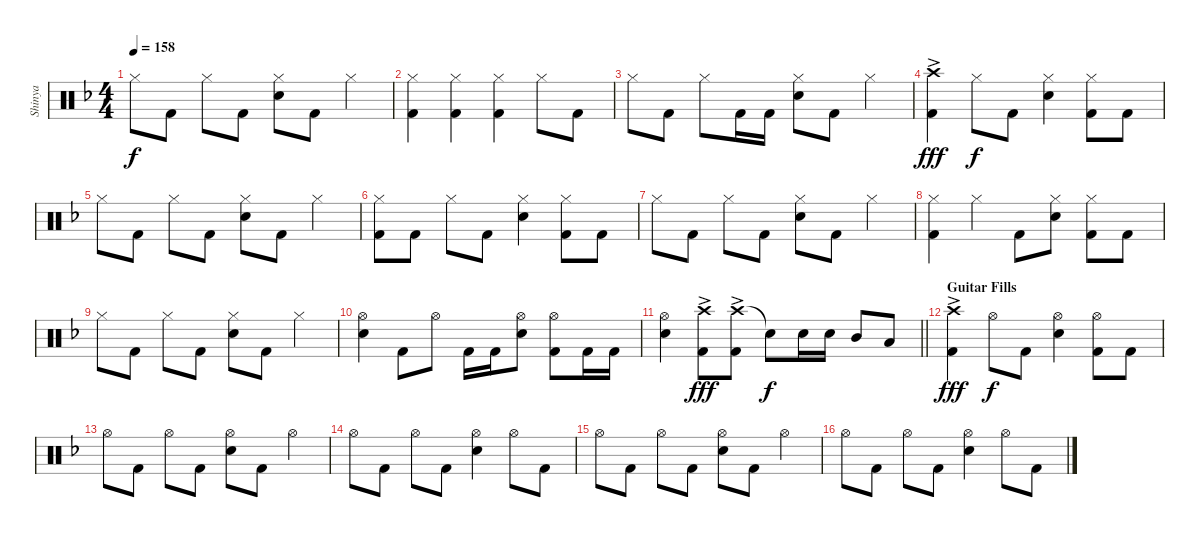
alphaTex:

\track ("Shinya" "Shinya") {instrument percussion}
\staff {score}
\articulation defaults
\ts (4 4)
\tempo 158
\clef neutral
\ks f "Hi-Hat (closed)".8{dy f} "Kick (hit) 2".8 "Hi-Hat (closed)".8 "Kick (hit) 2".8
("Hi-Hat (closed)" "Snare (hit) 2").8 "Kick (hit) 2".8 "Hi-Hat (closed)".4 |
("Hi-Hat (closed)" "Kick (hit) 2").4 ("Hi-Hat (closed)" "Kick (hit) 2").4 ("Hi-Hat (closed)" "Kick (hit) 2").4 "Hi-Hat (closed)".8 "Kick (hit) 2".8 |
"Hi-Hat (closed)".8 "Kick (hit) 2".8 "Hi-Hat (closed)".8 "Kick (hit) 2".16 "Kick (hit) 2".16 ("Hi-Hat (closed)" "Snare (hit) 2").8 "Kick (hit) 2".8 "Hi-Hat (closed)".4 |
("Crash high (hit)"{ac} "Kick (hit) 2").4{dy fff} "Hi-Hat (closed)".8{dy f} "Kick (hit) 2".8 ("Hi-Hat (closed)" "Snare (hit) 2").4 ("Hi-Hat (closed)" "Kick (hit) 2").8 "Kick (hit) 2".8 |
"Hi-Hat (closed)".8 "Kick (hit) 2".8 "Hi-Hat (closed)".8 "Kick (hit) 2".8 ("Hi-Hat (closed)" "Snare (hit) 2").8 "Kick (hit) 2".8 "Hi-Hat (closed)".4 |
("Hi-Hat (closed)" "Kick (hit) 2").8 "Kick (hit) 2".8 "Hi-Hat (closed)".8 "Kick (hit) 2".8 ("Hi-Hat (closed)" "Snare (hit) 2").4 ("Hi-Hat (closed)" "Kick (hit) 2").8 "Kick (hit) 2".8 |
"Hi-Hat (closed)".8 "Kick (hit) 2".8 "Hi-Hat (closed)".8 "Kick (hit) 2".8 ("Hi-Hat (closed)" "Snare (hit) 2").8 "Kick (hit) 2".8 "Hi-Hat (closed)".4 |
("Hi-Hat (closed)" "Kick (hit) 2").4 "Hi-Hat (closed)".4 "Kick (hit) 2".8 ("Hi-Hat (closed)" "Snare (hit) 2").8 ("Hi-Hat (closed)" "Kick (hit) 2").8 "Kick (hit) 2".8 |
"Hi-Hat (closed)".8 "Kick (hit) 2".8 "Hi-Hat (closed)".8 "Kick (hit) 2".8 ("Hi-Hat (closed)" "Snare (hit) 2").8 "Kick (hit) 2".8 "Hi-Hat (closed)".4 |
("Hi-Hat (open)" "Snare (hit) 2").4 "Kick (hit) 2".8 "Hi-Hat (open)".8 "Kick (hit) 2".16 "Kick (hit) 2".16 ("Hi-Hat (open)" "Snare (hit) 2").8 ("Hi-Hat (open)" "Kick (hit) 2").8 "Kick (hit) 2".16 "Kick (hit) 2".16 |
\barLineRight lightlight
("Hi-Hat (open)" "Snare (hit) 2").4 ("Crash high (hit)"{ac} "Kick (hit) 2").8{dy fff} ("Crash high (hit)"{ac} "Kick (hit) 2").8 "Snare (hit)"{t}.8{dy f} "Snare (hit) 2".16 "Snare (hit) 2".16 "Mid Tom (hit)".8 "Low Tom (hit)".8 |
\section ("" "Guitar Fills")
("Crash high (hit)"{ac} "Kick (hit) 2").4{dy fff} "Hi-Hat (open)".8{dy f} "Kick (hit) 2".8 ("Hi-Hat (open)" "Snare (hit) 2").4 ("Hi-Hat (open)" "Kick (hit) 2").8 "Kick (hit) 2".8 |
"Hi-Hat (open)".8 "Kick (hit) 2".8 "Hi-Hat (open)".8 "Kick (hit) 2".8 ("Hi-Hat (open)" "Snare (hit) 2").8 "Kick (hit) 2".8 "Hi-Hat (open)".4 |
"Hi-Hat (open)".8 "Kick (hit) 2".8 "Hi-Hat (open)".8 "Kick (hit) 2".8 ("Hi-Hat (open)" "Snare (hit) 2").4 "Hi-Hat (open)".8 "Kick (hit) 2".8 |
"Hi-Hat (open)".8 "Kick (hit) 2".8 "Hi-Hat (open)".8 "Kick (hit) 2".8 ("Hi-Hat (open)" "Snare (hit) 2").8 "Kick (hit) 2".8 "Hi-Hat (open)".4 |
"Hi-Hat (open)".8 "Kick (hit) 2".8 "Hi-Hat (open)".8 "Kick (hit) 2".8 ("Hi-Hat (open)" "Snare (hit) 2").4 "Hi-Hat (open)".8 "Kick (hit) 2".8
